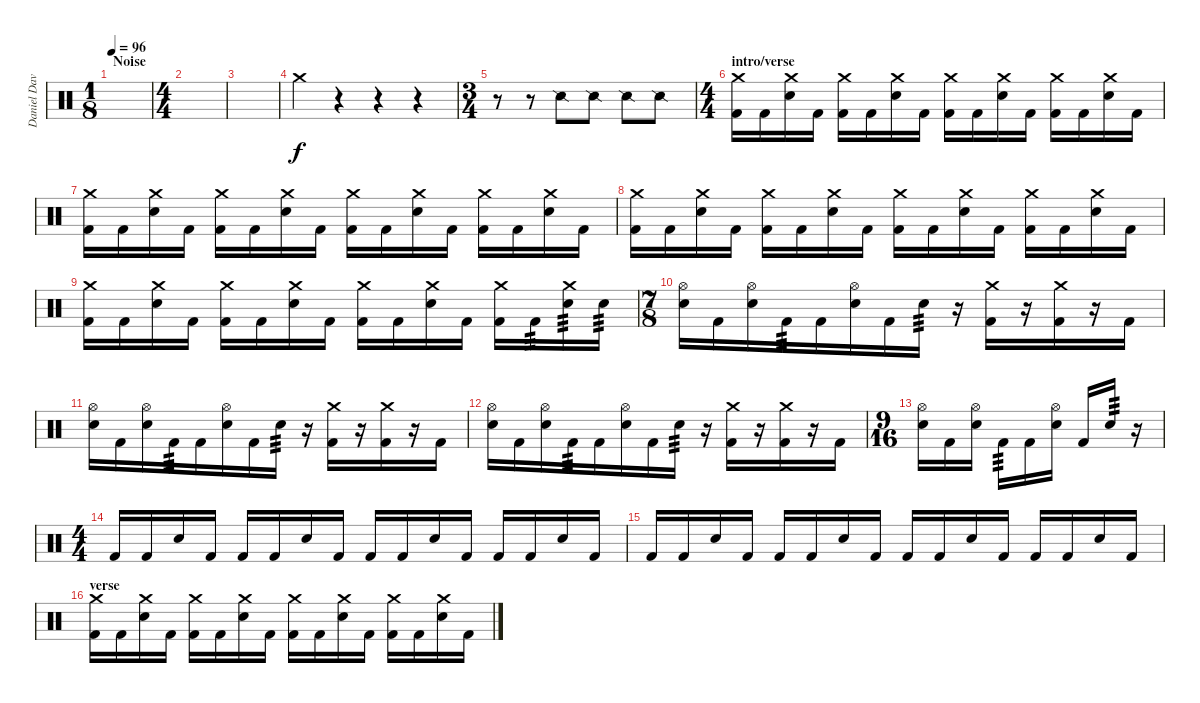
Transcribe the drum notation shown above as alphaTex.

\track ("Daniel Davison" "Daniel Dav") {instrument percussion}
\staff {score}
\articulation defaults
\ts (1 8)
\section ("" "Noise")
\tempo 96
\clef neutral
\ks c
|
\ts (4 4)
|
|
"Crash medium (hit)".4 r.4 r.4 r.4 |
\ts (3 4)
r.8 r.8 "Snare (side stick) 2".8 "Snare (side stick) 2".8 "Snare (side stick) 2".8 "Snare (side stick) 2".8 |
\ts (4 4)
\section ("" "intro/verse")
("Crash medium (hit)" "Kick (hit) 2").16 "Kick (hit) 2".16 ("Crash medium (hit)" "Electric Snare (hit)").16 "Kick (hit) 2".16 ("Crash medium (hit)" "Kick (hit) 2").16 "Kick (hit) 2".16 ("Crash medium (hit)" "Electric Snare (hit)").16 "Kick (hit) 2".16 ("Crash medium (hit)" "Kick (hit) 2").16 "Kick (hit) 2".16 ("Crash medium (hit)" "Electric Snare (hit)").16 "Kick (hit) 2".16 ("Crash medium (hit)" "Kick (hit) 2").16 "Kick (hit) 2".16 ("Crash medium (hit)" "Electric Snare (hit)").16 "Kick (hit) 2".16 |
("Crash medium (hit)" "Kick (hit) 2").16 "Kick (hit) 2".16 ("Crash medium (hit)" "Electric Snare (hit)").16 "Kick (hit) 2".16 ("Crash medium (hit)" "Kick (hit) 2").16 "Kick (hit) 2".16 ("Crash medium (hit)" "Electric Snare (hit)").16 "Kick (hit) 2".16 ("Crash medium (hit)" "Kick (hit) 2").16 "Kick (hit) 2".16 ("Crash medium (hit)" "Electric Snare (hit)").16 "Kick (hit) 2".16 ("Crash medium (hit)" "Kick (hit) 2").16 "Kick (hit) 2".16 ("Crash medium (hit)" "Electric Snare (hit)").16 "Kick (hit) 2".16 |
("Crash medium (hit)" "Kick (hit) 2").16 "Kick (hit) 2".16 ("Crash medium (hit)" "Electric Snare (hit)").16 "Kick (hit) 2".16 ("Crash medium (hit)" "Kick (hit) 2").16 "Kick (hit) 2".16 ("Crash medium (hit)" "Electric Snare (hit)").16 "Kick (hit) 2".16 ("Crash medium (hit)" "Kick (hit) 2").16 "Kick (hit) 2".16 ("Crash medium (hit)" "Electric Snare (hit)").16 "Kick (hit) 2".16 ("Crash medium (hit)" "Kick (hit) 2").16 "Kick (hit) 2".16 ("Crash medium (hit)" "Electric Snare (hit)").16 "Kick (hit) 2".16 |
("Crash medium (hit)" "Kick (hit) 2").16 "Kick (hit) 2".16 ("Crash medium (hit)" "Electric Snare (hit)").16 "Kick (hit) 2".16 ("Crash medium (hit)" "Kick (hit) 2").16 "Kick (hit) 2".16 ("Crash medium (hit)" "Electric Snare (hit)").16 "Kick (hit) 2".16 ("Crash medium (hit)" "Kick (hit) 2").16 "Kick (hit) 2".16 ("Crash medium (hit)" "Electric Snare (hit)").16 "Kick (hit) 2".16 ("Crash medium (hit)" "Kick (hit) 2").16 "Kick (hit) 2".16{tp 3} ("Crash medium (hit)" "Electric Snare (hit)").16{tp 3} "Electric Snare (hit)".16{tp 3} |
\ts (7 8)
("Hi-Hat (open)" "Electric Snare (hit)").16 "Kick (hit) 2".16 ("Hi-Hat (open)" "Electric Snare (hit)").16 "Kick (hit) 2".16{tp 3} "Kick (hit) 2".16 ("Hi-Hat (open)" "Electric Snare (hit)").16 "Kick (hit) 2".16 "Electric Snare (hit)".16{tp 3} r.16 ("Crash medium (hit)" "Kick (hit) 2").16 r.16 ("Crash medium (hit)" "Kick (hit) 2").16 r.16 "Kick (hit) 2".16 |
("Hi-Hat (open)" "Electric Snare (hit)").16 "Kick (hit) 2".16 ("Hi-Hat (open)" "Electric Snare (hit)").16 "Kick (hit) 2".16{tp 3} "Kick (hit) 2".16 ("Hi-Hat (open)" "Electric Snare (hit)").16 "Kick (hit) 2".16 "Electric Snare (hit)".16{tp 3} r.16 ("Crash medium (hit)" "Kick (hit) 2").16 r.16 ("Crash medium (hit)" "Kick (hit) 2").16 r.16 "Kick (hit) 2".16 |
("Hi-Hat (open)" "Electric Snare (hit)").16 "Kick (hit) 2".16 ("Hi-Hat (open)" "Electric Snare (hit)").16 "Kick (hit) 2".16{tp 3} "Kick (hit) 2".16 ("Hi-Hat (open)" "Electric Snare (hit)").16 "Kick (hit) 2".16 "Electric Snare (hit)".16{tp 3} r.16 ("Crash medium (hit)" "Kick (hit) 2").16 r.16 ("Crash medium (hit)" "Kick (hit) 2").16 r.16 "Kick (hit) 2".16 |
\ts (9 16)
("Hi-Hat (open)" "Electric Snare (hit)").16 "Kick (hit) 2".16 ("Hi-Hat (open)" "Electric Snare (hit)").16 "Kick (hit) 2".16{tp 3} "Kick (hit) 2".16 ("Hi-Hat (open)" "Electric Snare (hit)").16 "Kick (hit) 2".16 "Electric Snare (hit)".16{tp 3} r.16 |
\ts (4 4)
"Kick (hit) 2".16 "Kick (hit) 2".16 "Electric Snare (hit)".16 "Kick (hit) 2".16 "Kick (hit) 2".16 "Kick (hit) 2".16 "Electric Snare (hit)".16 "Kick (hit) 2".16 "Kick (hit) 2".16 "Kick (hit) 2".16 "Electric Snare (hit)".16 "Kick (hit) 2".16 "Kick (hit) 2".16 "Kick (hit) 2".16 "Electric Snare (hit)".16 "Kick (hit) 2".16 |
"Kick (hit) 2".16 "Kick (hit) 2".16 "Electric Snare (hit)".16 "Kick (hit) 2".16 "Kick (hit) 2".16 "Kick (hit) 2".16 "Electric Snare (hit)".16 "Kick (hit) 2".16 "Kick (hit) 2".16 "Kick (hit) 2".16 "Electric Snare (hit)".16 "Kick (hit) 2".16 "Kick (hit) 2".16 "Kick (hit) 2".16 "Electric Snare (hit)".16 "Kick (hit) 2".16 |
\section ("" "verse")
("Crash medium (hit)" "Kick (hit) 2").16 "Kick (hit) 2".16 ("Crash medium (hit)" "Electric Snare (hit)").16 "Kick (hit) 2".16 ("Crash medium (hit)" "Kick (hit) 2").16 "Kick (hit) 2".16 ("Crash medium (hit)" "Electric Snare (hit)").16 "Kick (hit) 2".16 ("Crash medium (hit)" "Kick (hit) 2").16 "Kick (hit) 2".16 ("Crash medium (hit)" "Electric Snare (hit)").16 "Kick (hit) 2".16 ("Crash medium (hit)" "Kick (hit) 2").16 "Kick (hit) 2".16 ("Crash medium (hit)" "Electric Snare (hit)").16 "Kick (hit) 2".16
